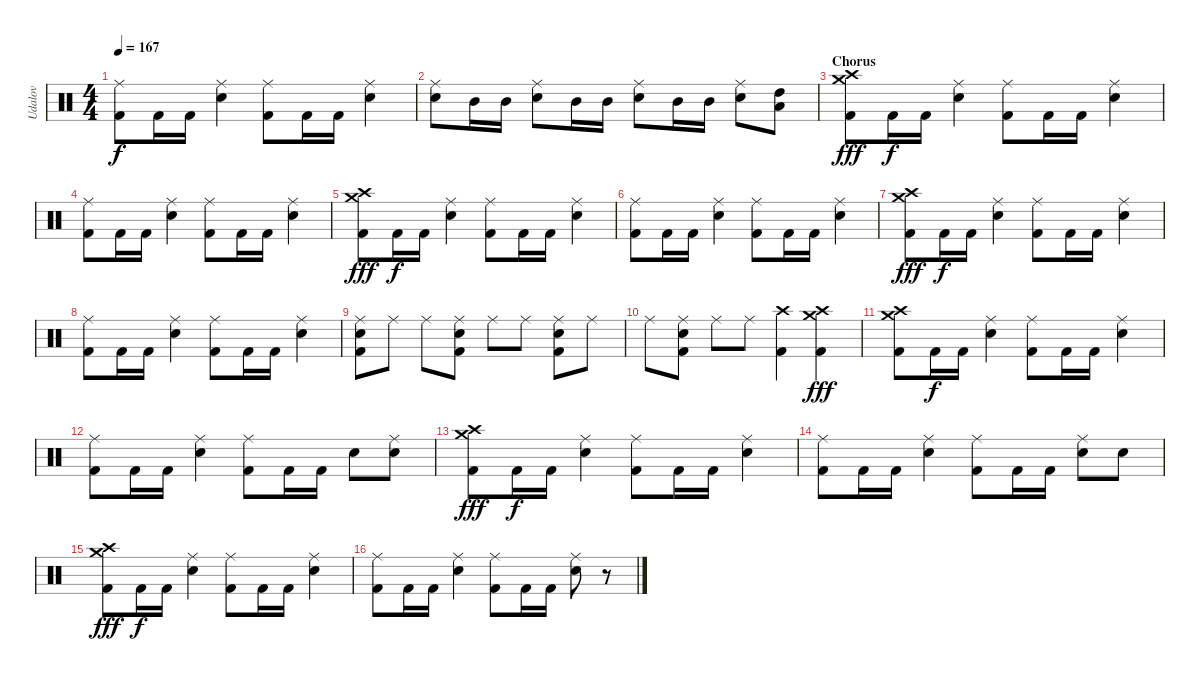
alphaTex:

\track ("Udalov" "Udalov") {instrument percussion}
\staff {score}
\articulation defaults
\ts (4 4)
\tempo 167
\clef neutral
\ks c
("Kick (hit) 2" "Ride (middle)").8{dy f} "Kick (hit) 2".16 "Kick (hit) 2".16 ("Snare (hit) 2" "Ride (middle)").4 ("Kick (hit) 2" "Ride (middle)").8 "Kick (hit) 2".16 "Kick (hit) 2".16 ("Snare (hit) 2" "Ride (middle)").4 |
("Electric Snare (hit)" "Ride (middle)").8 "Mid Tom (hit)".16 "Mid Tom (hit)".16 ("Electric Snare (hit)" "Ride (middle)").8 "Mid Tom (hit)".16 "Mid Tom (hit)".16 ("Electric Snare (hit)" "Ride (middle)").8 "Mid Tom (hit)".16 "Mid Tom (hit)".16 ("Electric Snare (hit)" "Ride (middle)").8 ("High Tom (hit)" "Low Tom (hit)").8 |
\section ("" "Chorus")
("Kick (hit) 2" "Crash medium (hit)" "Crash high (hit)").8{dy fff} "Kick (hit) 2".16{dy f} "Kick (hit) 2".16 ("Snare (hit) 2" "Ride (middle)").4 ("Kick (hit) 2" "Ride (middle)").8 "Kick (hit) 2".16 "Kick (hit) 2".16 ("Snare (hit) 2" "Ride (middle)").4 |
("Kick (hit) 2" "Ride (middle)").8 "Kick (hit) 2".16 "Kick (hit) 2".16 ("Snare (hit) 2" "Ride (middle)").4 ("Kick (hit) 2" "Ride (middle)").8 "Kick (hit) 2".16 "Kick (hit) 2".16 ("Snare (hit) 2" "Ride (middle)").4 |
("Kick (hit) 2" "Crash medium (hit)" "Crash high (hit)").8{dy fff} "Kick (hit) 2".16{dy f} "Kick (hit) 2".16 ("Snare (hit) 2" "Ride (middle)").4 ("Kick (hit) 2" "Ride (middle)").8 "Kick (hit) 2".16 "Kick (hit) 2".16 ("Snare (hit) 2" "Ride (middle)").4 |
("Kick (hit) 2" "Ride (middle)").8 "Kick (hit) 2".16 "Kick (hit) 2".16 ("Snare (hit) 2" "Ride (middle)").4 ("Kick (hit) 2" "Ride (middle)").8 "Kick (hit) 2".16 "Kick (hit) 2".16 ("Snare (hit) 2" "Ride (middle)").4 |
("Kick (hit) 2" "Crash high (hit)" "Crash medium (hit)").8{dy fff} "Kick (hit) 2".16{dy f} "Kick (hit) 2".16 ("Snare (hit) 2" "Ride (middle)").4 ("Kick (hit) 2" "Ride (middle)").8 "Kick (hit) 2".16 "Kick (hit) 2".16 ("Snare (hit) 2" "Ride (middle)").4 |
("Kick (hit) 2" "Ride (middle)").8 "Kick (hit) 2".16 "Kick (hit) 2".16 ("Snare (hit) 2" "Ride (middle)").4 ("Kick (hit) 2" "Ride (middle)").8 "Kick (hit) 2".16 "Kick (hit) 2".16 ("Snare (hit) 2" "Ride (middle)").4 |
("Electric Snare (hit)" "Ride (middle)" "Kick (hit) 2").8 "Ride (middle)".8 "Ride (middle)".8 ("Electric Snare (hit)" "Ride (middle)" "Kick (hit) 2").8 "Ride (middle)".8 "Ride (middle)".8 ("Electric Snare (hit)" "Ride (middle)" "Kick (hit) 2").8 "Ride (middle)".8 |
"Ride (middle)".8 ("Electric Snare (hit)" "Ride (middle)" "Kick (hit) 2").8 "Ride (middle)".8 "Ride (middle)".8 ("Kick (hit) 2" "Crash high (hit)").4 ("Kick (hit) 2" "Crash high (hit)" "Crash medium (hit)").4{dy fff} |
("Kick (hit) 2" "Crash medium (hit)" "Crash high (hit)").8 "Kick (hit) 2".16{dy f} "Kick (hit) 2".16 ("Snare (hit) 2" "Ride (middle)").4 ("Kick (hit) 2" "Ride (middle)").8 "Kick (hit) 2".16 "Kick (hit) 2".16 ("Snare (hit) 2" "Ride (middle)").4 |
("Kick (hit) 2" "Ride (middle)").8 "Kick (hit) 2".16 "Kick (hit) 2".16 ("Snare (hit) 2" "Ride (middle)").4 ("Kick (hit) 2" "Ride (middle)").8 "Kick (hit) 2".16 "Kick (hit) 2".16 "Snare (hit) 2".8 ("Snare (hit) 2" "Ride (middle)").8 |
("Kick (hit) 2" "Crash medium (hit)" "Crash high (hit)").8{dy fff} "Kick (hit) 2".16{dy f} "Kick (hit) 2".16 ("Snare (hit) 2" "Ride (middle)").4 ("Kick (hit) 2" "Ride (middle)").8 "Kick (hit) 2".16 "Kick (hit) 2".16 ("Snare (hit) 2" "Ride (middle)").4 |
("Kick (hit) 2" "Ride (middle)").8 "Kick (hit) 2".16 "Kick (hit) 2".16 ("Snare (hit) 2" "Ride (middle)").4 ("Kick (hit) 2" "Ride (middle)").8 "Kick (hit) 2".16 "Kick (hit) 2".16 ("Snare (hit) 2" "Ride (middle)").8 "Snare (hit) 2".8 |
("Kick (hit) 2" "Crash high (hit)" "Crash medium (hit)").8{dy fff} "Kick (hit) 2".16{dy f} "Kick (hit) 2".16 ("Snare (hit) 2" "Ride (middle)").4 ("Kick (hit) 2" "Ride (middle)").8 "Kick (hit) 2".16 "Kick (hit) 2".16 ("Snare (hit) 2" "Ride (middle)").4 |
("Kick (hit) 2" "Ride (middle)").8 "Kick (hit) 2".16 "Kick (hit) 2".16 ("Snare (hit) 2" "Ride (middle)").4 ("Kick (hit) 2" "Ride (middle)").8 "Kick (hit) 2".16 "Kick (hit) 2".16 ("Snare (hit) 2" "Ride (middle)").8 r.8
